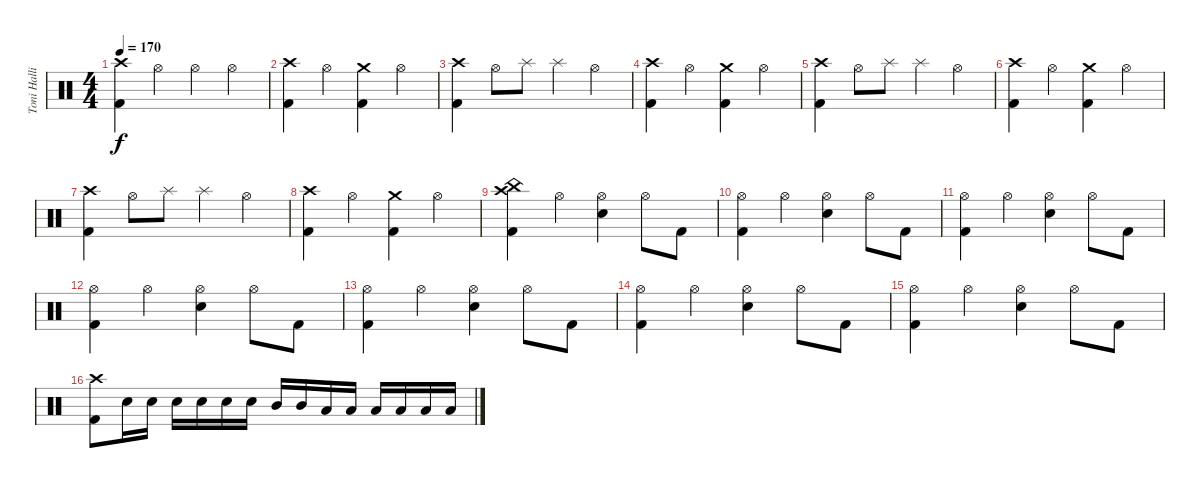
\track ("Toni Hallio" "Toni Halli") {instrument percussion}
\staff {score}
\articulation defaults
\ts (4 4)
\tempo 170
\clef neutral
\ks c
("Crash high (hit)" "Kick (hit) 2").4{dy f} "Hi-Hat (open)".4 "Hi-Hat (open)".4 "Hi-Hat (open)".4 |
("Crash high (hit)" "Kick (hit) 2").4 "Hi-Hat (open)".4 ("Crash medium (hit)" "Kick (hit) 2").4 "Hi-Hat (open)".4 |
("Crash high (hit)" "Kick (hit) 2").4 "Hi-Hat (open)".8 "Splash (hit)".8 "Splash (hit)".4 "Hi-Hat (open)".4 |
("Crash high (hit)" "Kick (hit) 2").4 "Hi-Hat (open)".4 ("Crash medium (hit)" "Kick (hit) 2").4 "Hi-Hat (open)".4 |
("Crash high (hit)" "Kick (hit) 2").4 "Hi-Hat (open)".8 "Splash (hit)".8 "Splash (hit)".4 "Hi-Hat (open)".4 |
("Crash high (hit)" "Kick (hit) 2").4 "Hi-Hat (open)".4 ("Crash medium (hit)" "Kick (hit) 2").4 "Hi-Hat (open)".4 |
("Crash high (hit)" "Kick (hit) 2").4 "Hi-Hat (open)".8 "Splash (hit)".8 "Splash (hit)".4 "Hi-Hat (open)".4 |
("Crash high (hit)" "Kick (hit) 2").4 "Hi-Hat (open)".4 ("Crash medium (hit)" "Kick (hit) 2").4 "Hi-Hat (open)".4 |
("China (hit)" "Crash high (hit)" "Kick (hit) 2").4 "Hi-Hat (open)".4 ("Hi-Hat (open)" "Snare (hit) 2").4 "Hi-Hat (open)".8 "Kick (hit) 2".8 |
("Hi-Hat (open)" "Kick (hit) 2").4 "Hi-Hat (open)".4 ("Hi-Hat (open)" "Snare (hit) 2").4 "Hi-Hat (open)".8 "Kick (hit) 2".8 |
("Hi-Hat (open)" "Kick (hit) 2").4 "Hi-Hat (open)".4 ("Hi-Hat (open)" "Snare (hit) 2").4 "Hi-Hat (open)".8 "Kick (hit) 2".8 |
("Hi-Hat (open)" "Kick (hit) 2").4 "Hi-Hat (open)".4 ("Hi-Hat (open)" "Snare (hit) 2").4 "Hi-Hat (open)".8 "Kick (hit) 2".8 |
("Hi-Hat (open)" "Kick (hit) 2").4 "Hi-Hat (open)".4 ("Hi-Hat (open)" "Snare (hit) 2").4 "Hi-Hat (open)".8 "Kick (hit) 2".8 |
("Hi-Hat (open)" "Kick (hit) 2").4 "Hi-Hat (open)".4 ("Hi-Hat (open)" "Snare (hit) 2").4 "Hi-Hat (open)".8 "Kick (hit) 2".8 |
("Hi-Hat (open)" "Kick (hit) 2").4 "Hi-Hat (open)".4 ("Hi-Hat (open)" "Snare (hit) 2").4 "Hi-Hat (open)".8 "Kick (hit) 2".8 |
("Crash high (hit)" "Kick (hit) 2").8 "Snare (hit) 2".16 "Snare (hit) 2".16 "Snare (hit) 2".16 "Snare (hit) 2".16 "Snare (hit) 2".16 "Snare (hit) 2".16 "Mid Tom (hit)".16 "Mid Tom (hit)".16 "Low Tom (hit)".16 "Low Tom (hit)".16 "Low Floor Tom (hit)".16 "Low Floor Tom (hit)".16 "Low Floor Tom (hit)".16 "Low Floor Tom (hit)".16
